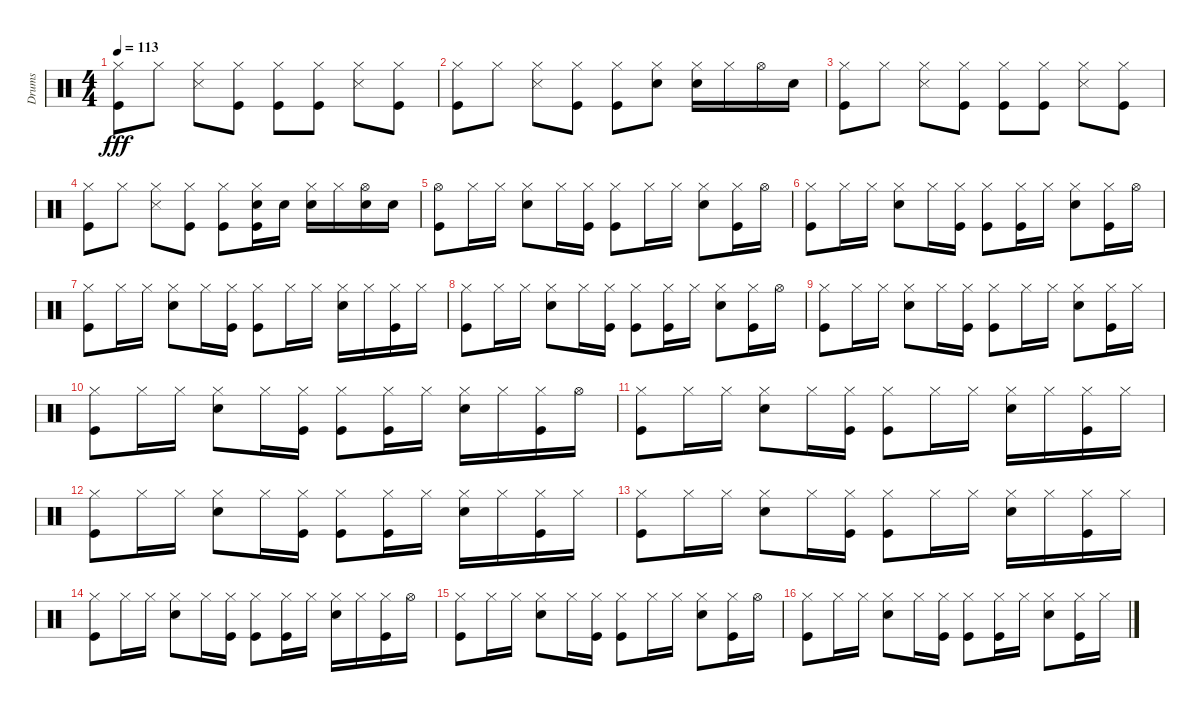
\track ("Drums" "Drums") {instrument percussion}
\staff {score}
\articulation defaults
\ts (4 4)
\tempo 113
\clef neutral
\ks c
("Kick (hit)" "Hi-Hat (closed)").8{dy fff} "Hi-Hat (closed)".8 ("Snare (side stick) 3" "Hi-Hat (closed)").8 ("Kick (hit)" "Hi-Hat (closed)").8 ("Kick (hit)" "Hi-Hat (closed)").8 ("Kick (hit)" "Hi-Hat (closed)").8 ("Snare (side stick) 3" "Hi-Hat (closed)").8 ("Kick (hit)" "Hi-Hat (closed)").8 |
("Kick (hit)" "Hi-Hat (closed)").8 "Hi-Hat (closed)".8 ("Snare (side stick) 3" "Hi-Hat (closed)").8 ("Kick (hit)" "Hi-Hat (closed)").8 ("Kick (hit)" "Hi-Hat (closed)").8 ("Hi-Hat (closed)" "Snare (hit) 2").8 ("Snare (hit) 2" "Hi-Hat (closed)").16 "Hi-Hat (closed)".16 "Hi-Hat (open)".16 "Snare (hit) 2".16 |
("Kick (hit)" "Hi-Hat (closed)").8 "Hi-Hat (closed)".8 ("Snare (side stick) 3" "Hi-Hat (closed)").8 ("Kick (hit)" "Hi-Hat (closed)").8 ("Kick (hit)" "Hi-Hat (closed)").8 ("Kick (hit)" "Hi-Hat (closed)").8 ("Snare (side stick) 3" "Hi-Hat (closed)").8 ("Kick (hit)" "Hi-Hat (closed)").8 |
("Kick (hit)" "Hi-Hat (closed)").8 "Hi-Hat (closed)".8 ("Snare (side stick) 3" "Hi-Hat (closed)").8 ("Kick (hit)" "Hi-Hat (closed)").8 ("Kick (hit)" "Hi-Hat (closed)").8 ("Kick (hit)" "Hi-Hat (closed)" "Snare (hit) 2").16 "Snare (hit) 2".16 ("Snare (hit) 2" "Hi-Hat (closed)").16 "Hi-Hat (closed)".16 ("Snare (hit) 2" "Hi-Hat (open)").16 "Snare (hit) 2".16 |
("Kick (hit)" "Hi-Hat (open)").8 "Hi-Hat (closed)".16 "Hi-Hat (closed)".16 ("Snare (hit) 2" "Hi-Hat (closed)").8 "Hi-Hat (closed)".16 ("Kick (hit)" "Hi-Hat (closed)").16 ("Kick (hit)" "Hi-Hat (closed)").8 "Hi-Hat (closed)".16 "Hi-Hat (closed)".16 ("Snare (hit) 2" "Hi-Hat (closed)").8 ("Kick (hit)" "Hi-Hat (closed)").16 "Hi-Hat (open)".16 |
("Kick (hit)" "Hi-Hat (closed)").8 "Hi-Hat (closed)".16 "Hi-Hat (closed)".16 ("Snare (hit) 2" "Hi-Hat (closed)").8 "Hi-Hat (closed)".16 ("Kick (hit)" "Hi-Hat (closed)").16 ("Kick (hit)" "Hi-Hat (closed)").8 ("Kick (hit)" "Hi-Hat (closed)").16 "Hi-Hat (closed)".16 ("Snare (hit) 2" "Hi-Hat (closed)").8 ("Kick (hit)" "Hi-Hat (closed)").16 "Hi-Hat (open)".16 |
("Kick (hit)" "Hi-Hat (closed)").8 "Hi-Hat (closed)".16 "Hi-Hat (closed)".16 ("Snare (hit) 2" "Hi-Hat (closed)").8 "Hi-Hat (closed)".16 ("Kick (hit)" "Hi-Hat (closed)").16 ("Kick (hit)" "Hi-Hat (closed)").8 "Hi-Hat (closed)".16 "Hi-Hat (closed)".16 ("Snare (hit) 2" "Hi-Hat (closed)").16 "Hi-Hat (closed)".16 ("Kick (hit)" "Hi-Hat (closed)").16 "Hi-Hat (closed)".16 |
("Kick (hit)" "Hi-Hat (closed)").8 "Hi-Hat (closed)".16 "Hi-Hat (closed)".16 ("Snare (hit) 2" "Hi-Hat (closed)").8 "Hi-Hat (closed)".16 ("Kick (hit)" "Hi-Hat (closed)").16 ("Kick (hit)" "Hi-Hat (closed)").8 ("Kick (hit)" "Hi-Hat (closed)").16 "Hi-Hat (closed)".16 ("Snare (hit) 2" "Hi-Hat (closed)").8 ("Kick (hit)" "Hi-Hat (closed)").16 "Hi-Hat (open)".16 |
("Kick (hit)" "Hi-Hat (closed)").8 "Hi-Hat (closed)".16 "Hi-Hat (closed)".16 ("Snare (hit) 2" "Hi-Hat (closed)").8 "Hi-Hat (closed)".16 ("Kick (hit)" "Hi-Hat (closed)").16 ("Kick (hit)" "Hi-Hat (closed)").8 "Hi-Hat (closed)".16 "Hi-Hat (closed)".16 ("Snare (hit) 2" "Hi-Hat (closed)").8 ("Kick (hit)" "Hi-Hat (closed)").16 "Hi-Hat (closed)".16 |
("Kick (hit)" "Hi-Hat (closed)").8 "Hi-Hat (closed)".16 "Hi-Hat (closed)".16 ("Snare (hit) 2" "Hi-Hat (closed)").8 "Hi-Hat (closed)".16 ("Kick (hit)" "Hi-Hat (closed)").16 ("Kick (hit)" "Hi-Hat (closed)").8 ("Kick (hit)" "Hi-Hat (closed)").16 "Hi-Hat (closed)".16 ("Snare (hit) 2" "Hi-Hat (closed)").16 "Hi-Hat (closed)".16 ("Kick (hit)" "Hi-Hat (closed)").16 "Hi-Hat (open)".16 |
("Kick (hit)" "Hi-Hat (closed)").8 "Hi-Hat (closed)".16 "Hi-Hat (closed)".16 ("Snare (hit) 2" "Hi-Hat (closed)").8 "Hi-Hat (closed)".16 ("Kick (hit)" "Hi-Hat (closed)").16 ("Kick (hit)" "Hi-Hat (closed)").8 "Hi-Hat (closed)".16 "Hi-Hat (closed)".16 ("Snare (hit) 2" "Hi-Hat (closed)").16 "Hi-Hat (closed)".16 ("Kick (hit)" "Hi-Hat (closed)").16 "Hi-Hat (closed)".16 |
("Kick (hit)" "Hi-Hat (closed)").8 "Hi-Hat (closed)".16 "Hi-Hat (closed)".16 ("Snare (hit) 2" "Hi-Hat (closed)").8 "Hi-Hat (closed)".16 ("Kick (hit)" "Hi-Hat (closed)").16 ("Kick (hit)" "Hi-Hat (closed)").8 ("Kick (hit)" "Hi-Hat (closed)").16 "Hi-Hat (closed)".16 ("Snare (hit) 2" "Hi-Hat (closed)").16 "Hi-Hat (closed)".16 ("Kick (hit)" "Hi-Hat (closed)").16 "Hi-Hat (closed)".16 |
("Kick (hit)" "Hi-Hat (closed)").8 "Hi-Hat (closed)".16 "Hi-Hat (closed)".16 ("Snare (hit) 2" "Hi-Hat (closed)").8 "Hi-Hat (closed)".16 ("Kick (hit)" "Hi-Hat (closed)").16 ("Kick (hit)" "Hi-Hat (closed)").8 "Hi-Hat (closed)".16 "Hi-Hat (closed)".16 ("Snare (hit) 2" "Hi-Hat (closed)").16 "Hi-Hat (closed)".16 ("Kick (hit)" "Hi-Hat (closed)").16 "Hi-Hat (closed)".16 |
("Kick (hit)" "Hi-Hat (closed)").8 "Hi-Hat (closed)".16 "Hi-Hat (closed)".16 ("Snare (hit) 2" "Hi-Hat (closed)").8 "Hi-Hat (closed)".16 ("Kick (hit)" "Hi-Hat (closed)").16 ("Kick (hit)" "Hi-Hat (closed)").8 ("Kick (hit)" "Hi-Hat (closed)").16 "Hi-Hat (closed)".16 ("Snare (hit) 2" "Hi-Hat (closed)").16 "Hi-Hat (closed)".16 ("Kick (hit)" "Hi-Hat (closed)").16 "Hi-Hat (open)".16 |
("Kick (hit)" "Hi-Hat (closed)").8 "Hi-Hat (closed)".16 "Hi-Hat (closed)".16 ("Snare (hit) 2" "Hi-Hat (closed)").8 "Hi-Hat (closed)".16 ("Kick (hit)" "Hi-Hat (closed)").16 ("Kick (hit)" "Hi-Hat (closed)").8 "Hi-Hat (closed)".16 "Hi-Hat (closed)".16 ("Snare (hit) 2" "Hi-Hat (closed)").8 ("Kick (hit)" "Hi-Hat (closed)").16 "Hi-Hat (open)".16 |
("Kick (hit)" "Hi-Hat (closed)").8 "Hi-Hat (closed)".16 "Hi-Hat (closed)".16 ("Snare (hit) 2" "Hi-Hat (closed)").8 "Hi-Hat (closed)".16 ("Kick (hit)" "Hi-Hat (closed)").16 ("Kick (hit)" "Hi-Hat (closed)").8 ("Kick (hit)" "Hi-Hat (closed)").16 "Hi-Hat (closed)".16 ("Snare (hit) 2" "Hi-Hat (closed)").8 ("Kick (hit)" "Hi-Hat (closed)").16 "Hi-Hat (closed)".16
